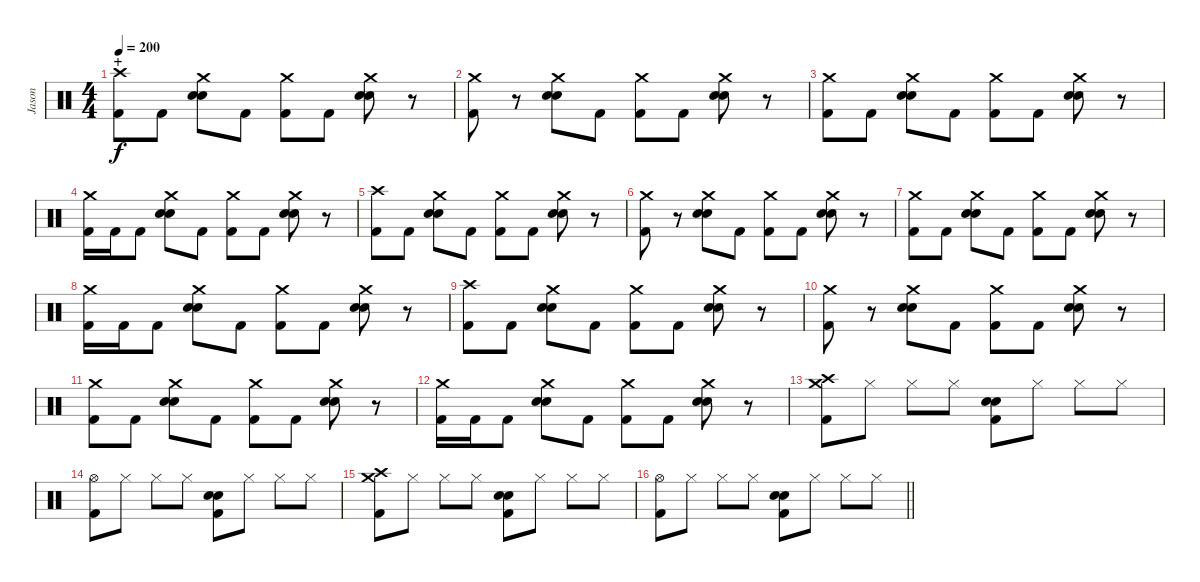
\track ("Jason" "Jason") {instrument percussion}
\staff {score}
\articulation defaults
\ts (4 4)
\section ("" "+")
\tempo 200
\clef neutral
\ks c
("Crash high (hit)" "Kick (hit) 2").8{dy f} "Kick (hit) 2".8 ("Crash medium (hit)" "Electric Snare (hit)" "Snare (hit) 2").8 "Kick (hit) 2".8 ("Crash medium (hit)" "Kick (hit) 2").8 "Kick (hit) 2".8 ("Crash medium (hit)" "Electric Snare (hit)" "Snare (hit) 2").8 r.8 |
("Crash medium (hit)" "Kick (hit) 2").8 r.8 ("Crash medium (hit)" "Electric Snare (hit)" "Snare (hit) 2").8 "Kick (hit) 2".8 ("Crash medium (hit)" "Kick (hit) 2").8 "Kick (hit) 2".8 ("Crash medium (hit)" "Electric Snare (hit)" "Snare (hit) 2").8 r.8 |
("Crash medium (hit)" "Kick (hit) 2").8 "Kick (hit) 2".8 ("Crash medium (hit)" "Electric Snare (hit)" "Snare (hit) 2").8 "Kick (hit) 2".8 ("Crash medium (hit)" "Kick (hit) 2").8 "Kick (hit) 2".8 ("Crash medium (hit)" "Electric Snare (hit)" "Snare (hit) 2").8 r.8 |
("Crash medium (hit)" "Kick (hit) 2").16 "Kick (hit) 2".16 "Kick (hit) 2".8 ("Crash medium (hit)" "Electric Snare (hit)" "Snare (hit) 2").8 "Kick (hit) 2".8 ("Crash medium (hit)" "Kick (hit) 2").8 "Kick (hit) 2".8 ("Crash medium (hit)" "Electric Snare (hit)" "Snare (hit) 2").8 r.8 |
("Crash high (hit)" "Kick (hit) 2").8 "Kick (hit) 2".8 ("Crash medium (hit)" "Electric Snare (hit)" "Snare (hit) 2").8 "Kick (hit) 2".8 ("Crash medium (hit)" "Kick (hit) 2").8 "Kick (hit) 2".8 ("Crash medium (hit)" "Electric Snare (hit)" "Snare (hit) 2").8 r.8 |
("Crash medium (hit)" "Kick (hit) 2").8 r.8 ("Crash medium (hit)" "Electric Snare (hit)" "Snare (hit) 2").8 "Kick (hit) 2".8 ("Crash medium (hit)" "Kick (hit) 2").8 "Kick (hit) 2".8 ("Crash medium (hit)" "Electric Snare (hit)" "Snare (hit) 2").8 r.8 |
("Crash medium (hit)" "Kick (hit) 2").8 "Kick (hit) 2".8 ("Crash medium (hit)" "Electric Snare (hit)" "Snare (hit) 2").8 "Kick (hit) 2".8 ("Crash medium (hit)" "Kick (hit) 2").8 "Kick (hit) 2".8 ("Crash medium (hit)" "Electric Snare (hit)" "Snare (hit) 2").8 r.8 |
("Crash medium (hit)" "Kick (hit) 2").16 "Kick (hit) 2".16 "Kick (hit) 2".8 ("Crash medium (hit)" "Electric Snare (hit)" "Snare (hit) 2").8 "Kick (hit) 2".8 ("Crash medium (hit)" "Kick (hit) 2").8 "Kick (hit) 2".8 ("Crash medium (hit)" "Electric Snare (hit)" "Snare (hit) 2").8 r.8 |
("Crash high (hit)" "Kick (hit) 2").8 "Kick (hit) 2".8 ("Crash medium (hit)" "Electric Snare (hit)" "Snare (hit) 2").8 "Kick (hit) 2".8 ("Crash medium (hit)" "Kick (hit) 2").8 "Kick (hit) 2".8 ("Crash medium (hit)" "Electric Snare (hit)" "Snare (hit) 2").8 r.8 |
("Crash medium (hit)" "Kick (hit) 2").8 r.8 ("Crash medium (hit)" "Electric Snare (hit)" "Snare (hit) 2").8 "Kick (hit) 2".8 ("Crash medium (hit)" "Kick (hit) 2").8 "Kick (hit) 2".8 ("Crash medium (hit)" "Electric Snare (hit)" "Snare (hit) 2").8 r.8 |
("Crash medium (hit)" "Kick (hit) 2").8 "Kick (hit) 2".8 ("Crash medium (hit)" "Electric Snare (hit)" "Snare (hit) 2").8 "Kick (hit) 2".8 ("Crash medium (hit)" "Kick (hit) 2").8 "Kick (hit) 2".8 ("Crash medium (hit)" "Electric Snare (hit)" "Snare (hit) 2").8 r.8 |
("Crash medium (hit)" "Kick (hit) 2").16 "Kick (hit) 2".16 "Kick (hit) 2".8 ("Crash medium (hit)" "Electric Snare (hit)" "Snare (hit) 2").8 "Kick (hit) 2".8 ("Crash medium (hit)" "Kick (hit) 2").8 "Kick (hit) 2".8 ("Crash medium (hit)" "Electric Snare (hit)" "Snare (hit) 2").8 r.8 |
("Crash medium (hit)" "Crash high (hit)" "Kick (hit) 2").8 "Hi-Hat (closed)".8 "Hi-Hat (closed)".8 "Hi-Hat (closed)".8 ("Electric Snare (hit)" "Snare (hit) 2" "Kick (hit) 2").8 "Hi-Hat (closed)".8 "Hi-Hat (closed)".8 "Hi-Hat (closed)".8 |
("Hi-Hat (open)" "Kick (hit) 2").8 "Hi-Hat (closed)".8 "Hi-Hat (closed)".8 "Hi-Hat (closed)".8 ("Electric Snare (hit)" "Snare (hit) 2" "Kick (hit) 2").8 "Hi-Hat (closed)".8 "Hi-Hat (closed)".8 "Hi-Hat (closed)".8 |
("Crash medium (hit)" "Crash high (hit)" "Kick (hit) 2").8 "Hi-Hat (closed)".8 "Hi-Hat (closed)".8 "Hi-Hat (closed)".8 ("Electric Snare (hit)" "Snare (hit) 2" "Kick (hit) 2").8 "Hi-Hat (closed)".8 "Hi-Hat (closed)".8 "Hi-Hat (closed)".8 |
\barLineRight lightlight
("Hi-Hat (open)" "Kick (hit) 2").8 "Hi-Hat (closed)".8 "Hi-Hat (closed)".8 "Hi-Hat (closed)".8 ("Electric Snare (hit)" "Snare (hit) 2" "Kick (hit) 2").8 "Hi-Hat (closed)".8 "Hi-Hat (closed)".8 "Hi-Hat (closed)".8
